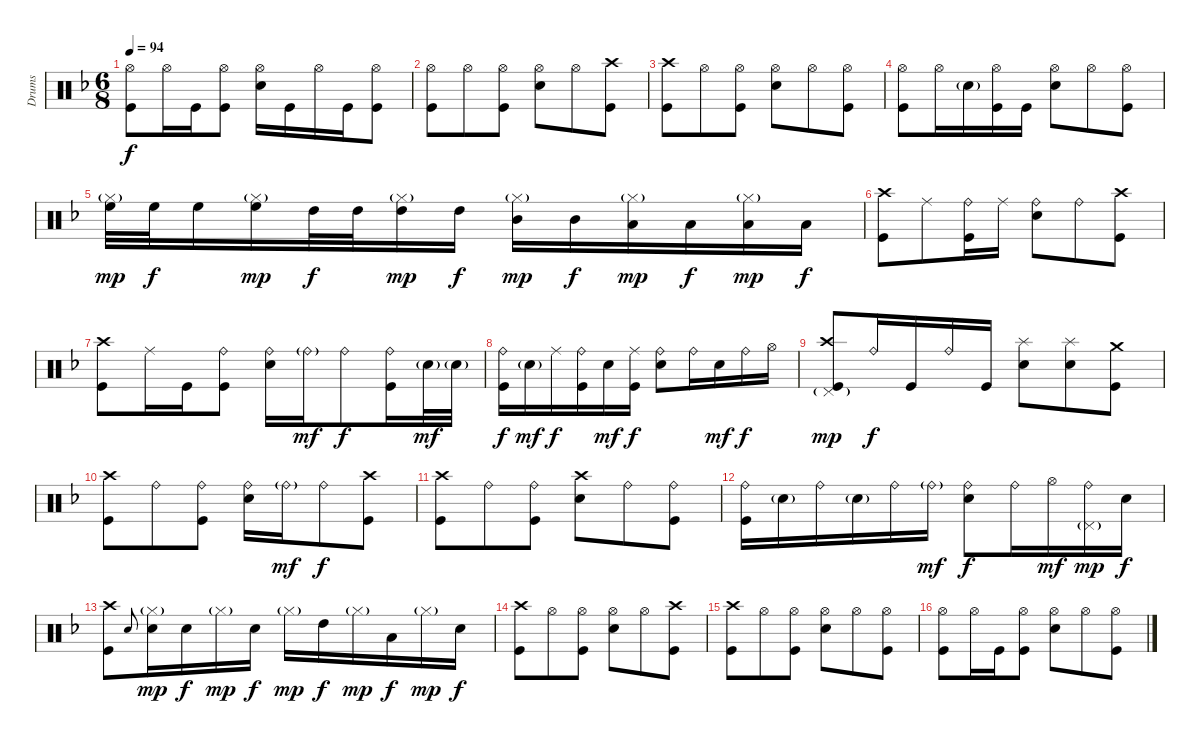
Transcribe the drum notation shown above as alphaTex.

\track ("Drums" "Drums") {instrument percussion bank 10}
\staff {score}
\articulation defaults
\ts (6 8)
\tempo 94
\clef neutral
\ks dminor
("Hi-Hat (open)" "Kick (hit)").8{dy f} "Hi-Hat (open)".16 "Kick (hit)".16 ("Hi-Hat (open)" "Kick (hit)").8 ("Hi-Hat (open)" "Electric Snare (hit)").16 "Kick (hit)".16 "Hi-Hat (open)".16 "Kick (hit)".16 ("Hi-Hat (open)" "Kick (hit)").8 |
("Hi-Hat (open)" "Kick (hit)").8 "Hi-Hat (open)".8 ("Hi-Hat (open)" "Kick (hit)").8 ("Hi-Hat (open)" "Electric Snare (hit)").8 "Hi-Hat (open)".8 ("Crash high (hit)" "Kick (hit)").8 |
("Crash high (hit)" "Kick (hit)").8 "Hi-Hat (open)".8 ("Hi-Hat (open)" "Kick (hit)").8 ("Hi-Hat (open)" "Electric Snare (hit)").8 "Hi-Hat (open)".8 ("Hi-Hat (open)" "Kick (hit)").8 |
("Hi-Hat (open)" "Kick (hit)").8 "Hi-Hat (open)".16 "Electric Snare (hit)"{g}.16 ("Hi-Hat (open)" "Kick (hit)").16 "Kick (hit)".16 ("Hi-Hat (open)" "Electric Snare (hit)").8 "Hi-Hat (open)".8 ("Hi-Hat (open)" "Kick (hit)").8 |
("Hi-Hat (closed)"{g} "High Floor Tom (hit)").32{dy mp} "High Floor Tom (hit)".32{dy f} "High Floor Tom (hit)".16 ("Hi-Hat (closed)"{g} "High Floor Tom (hit)").16{dy mp} "High Tom (hit)".32{dy f} "High Tom (hit)".32 ("Hi-Hat (closed)"{g} "High Tom (hit)").16{dy mp} "High Tom (hit)".16{dy f} ("Hi-Hat (closed)"{g} "Mid Tom (hit)").16{dy mp} "Mid Tom (hit)".16{dy f} ("Hi-Hat (closed)"{g} "Low Tom (hit)").16{dy mp} "Low Tom (hit)".16{dy f} ("Hi-Hat (closed)"{g} "Low Floor Tom (hit)").16{dy mp} "Low Floor Tom (hit)".16{dy f} |
("Crash high (hit)" "Kick (hit)").8 "Ride (middle)".8 ("Ride (bell)" "Kick (hit)").16 "Ride (middle)".16 ("Ride (bell)" "Electric Snare (hit)").8 "Ride (bell)".8 ("Crash high (hit)" "Kick (hit)").8 |
("Crash high (hit)" "Kick (hit)").8 "Ride (middle)".16 "Kick (hit)".16 ("Ride (bell)" "Kick (hit)").8 ("Ride (bell)" "Electric Snare (hit)").16 "Ride (bell)"{g}.16{dy mf} "Ride (bell)".8{dy f} ("Ride (bell)" "Kick (hit)").16 "Electric Snare (hit)"{g}.32{dy mf} "Electric Snare (hit)"{g}.32 |
("Ride (bell)" "Kick (hit)").16{dy f} "Electric Snare (hit)"{g}.16{dy mf} "Ride (middle)".16{dy f} ("Ride (bell)" "Kick (hit)").16 "Electric Snare (hit)".16{dy mf} ("Ride (middle)" "Kick (hit)").16{dy f} ("Ride (bell)" "Electric Snare (hit)").8 "Ride (bell)".16 "Electric Snare (hit)".16{dy mf} "Ride (bell)".16{dy f} "Hi-Hat (open)".16 |
("Crash high (hit)" "Pedal Hi-Hat (hit)"{g} "Kick (hit)").8{dy mp} "Ride (bell)".16{dy f} "Kick (hit)".16 "Ride (bell)".16 "Kick (hit)".16 ("Splash (hit)" "Electric Snare (hit)").8 ("Splash (hit)" "Electric Snare (hit)").8 ("Crash medium (hit)" "Kick (hit)").8 |
("Crash high (hit)" "Kick (hit)").8 "Ride (bell)".8 ("Ride (bell)" "Kick (hit)").8 ("Ride (bell)" "Electric Snare (hit)").16 "Ride (bell)"{g}.16{dy mf} "Ride (bell)".8{dy f} ("Crash high (hit)" "Kick (hit)").8 |
("Crash high (hit)" "Kick (hit)").8 "Ride (bell)".8 ("Ride (bell)" "Kick (hit)").8 ("Crash high (hit)" "Electric Snare (hit)").8 "Ride (bell)".8 ("Ride (bell)" "Kick (hit)").8 |
("Ride (bell)" "Kick (hit)").16 "Electric Snare (hit)"{g}.16 "Ride (bell)".16 "Electric Snare (hit)"{g}.16 "Ride (bell)".16 "Ride (bell)"{g}.16{dy mf} ("Ride (bell)" "Electric Snare (hit)").8{dy f} "Ride (bell)".16 "Hi-Hat (open)".16{dy mf} ("Pedal Hi-Hat (hit)"{g} "Ride (bell)").16{dy mp} "Electric Snare (hit)".16{dy f} |
("Crash high (hit)" "Kick (hit)").8 "Electric Snare (hit)".8{gr onbeat} ("Hi-Hat (closed)"{g} "Electric Snare (hit)").16{dy mp} "Electric Snare (hit)".16{dy f} "Hi-Hat (closed)"{g}.16{dy mp} "Electric Snare (hit)".16{dy f} "Hi-Hat (closed)"{g}.16{dy mp} "High Tom (hit)".16{dy f} "Hi-Hat (closed)"{g}.16{dy mp} "Low Tom (hit)".16{dy f} "Hi-Hat (closed)"{g}.16{dy mp} "Electric Snare (hit)".16{dy f} |
("Crash high (hit)" "Kick (hit)").8 "Hi-Hat (open)".8 ("Hi-Hat (open)" "Kick (hit)").8 ("Hi-Hat (open)" "Electric Snare (hit)").8 "Hi-Hat (open)".8 ("Crash high (hit)" "Kick (hit)").8 |
("Crash high (hit)" "Kick (hit)").8 "Hi-Hat (open)".8 ("Hi-Hat (open)" "Kick (hit)").8 ("Hi-Hat (open)" "Electric Snare (hit)").8 "Hi-Hat (open)".8 ("Hi-Hat (open)" "Kick (hit)").8 |
("Hi-Hat (open)" "Kick (hit)").8 "Hi-Hat (open)".16 "Kick (hit)".16 ("Hi-Hat (open)" "Kick (hit)").8 ("Hi-Hat (open)" "Electric Snare (hit)").8 "Hi-Hat (open)".8 ("Hi-Hat (open)" "Kick (hit)").8
